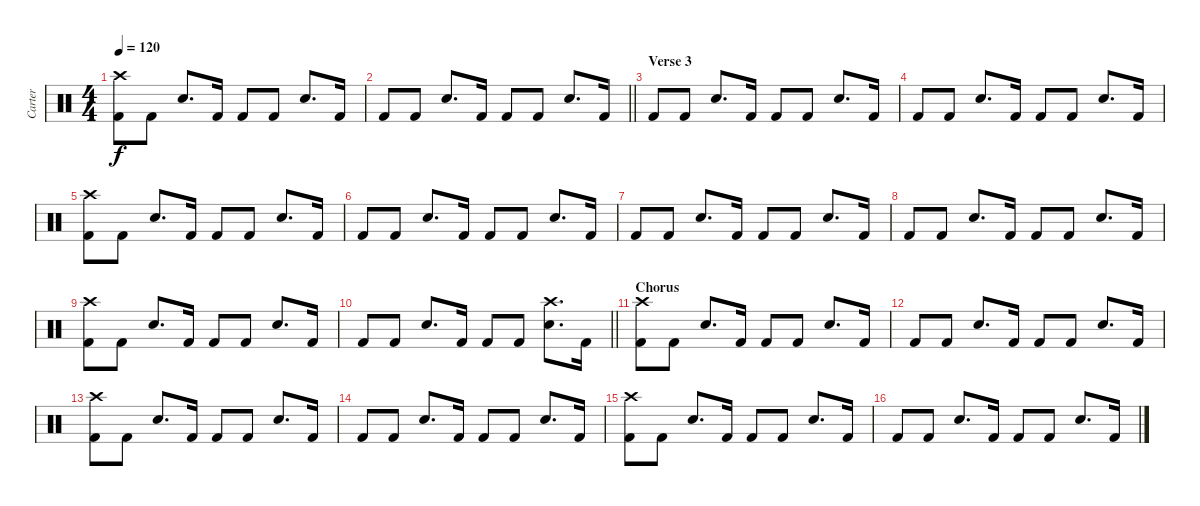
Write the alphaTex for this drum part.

\track ("Carter" "Carter") {instrument percussion}
\staff {score}
\articulation defaults
\ts (4 4)
\tempo 120
\clef neutral
\ks c
("Kick (hit) 2" "Crash high (hit)").8{dy f} "Kick (hit) 2".8 "Electric Snare (hit)".8{d} "Kick (hit) 2".16 "Kick (hit) 2".8 "Kick (hit) 2".8 "Electric Snare (hit)".8{d} "Kick (hit) 2".16 |
\barLineRight lightlight "Kick (hit) 2".8 "Kick (hit) 2".8 "Electric Snare (hit)".8{d} "Kick (hit) 2".16 "Kick (hit) 2".8 "Kick (hit) 2".8 "Electric Snare (hit)".8{d} "Kick (hit) 2".16
|
\section ("" "Verse 3")
"Kick (hit) 2".8 "Kick (hit) 2".8 "Electric Snare (hit)".8{d} "Kick (hit) 2".16 "Kick (hit) 2".8 "Kick (hit) 2".8 "Electric Snare (hit)".8{d} "Kick (hit) 2".16 |
"Kick (hit) 2".8 "Kick (hit) 2".8 "Electric Snare (hit)".8{d} "Kick (hit) 2".16 "Kick (hit) 2".8 "Kick (hit) 2".8 "Electric Snare (hit)".8{d} "Kick (hit) 2".16 |
("Kick (hit) 2" "Crash high (hit)").8 "Kick (hit) 2".8 "Electric Snare (hit)".8{d} "Kick (hit) 2".16 "Kick (hit) 2".8 "Kick (hit) 2".8 "Electric Snare (hit)".8{d} "Kick (hit) 2".16 |
"Kick (hit) 2".8 "Kick (hit) 2".8 "Electric Snare (hit)".8{d} "Kick (hit) 2".16 "Kick (hit) 2".8 "Kick (hit) 2".8 "Electric Snare (hit)".8{d} "Kick (hit) 2".16 |
"Kick (hit) 2".8 "Kick (hit) 2".8 "Electric Snare (hit)".8{d} "Kick (hit) 2".16 "Kick (hit) 2".8 "Kick (hit) 2".8 "Electric Snare (hit)".8{d} "Kick (hit) 2".16 |
"Kick (hit) 2".8 "Kick (hit) 2".8 "Electric Snare (hit)".8{d} "Kick (hit) 2".16 "Kick (hit) 2".8 "Kick (hit) 2".8 "Electric Snare (hit)".8{d} "Kick (hit) 2".16 |
("Kick (hit) 2" "Crash high (hit)").8 "Kick (hit) 2".8 "Electric Snare (hit)".8{d} "Kick (hit) 2".16 "Kick (hit) 2".8 "Kick (hit) 2".8 "Electric Snare (hit)".8{d} "Kick (hit) 2".16 |
\barLineRight lightlight "Kick (hit) 2".8 "Kick (hit) 2".8 "Electric Snare (hit)".8{d} "Kick (hit) 2".16 "Kick (hit) 2".8 "Kick (hit) 2".8
("Electric Snare (hit)" "Crash high (hit)").8{d} "Kick (hit) 2".16 |
\section ("" "Chorus")
("Kick (hit) 2" "Crash high (hit)").8 "Kick (hit) 2".8 "Electric Snare (hit)".8{d} "Kick (hit) 2".16 "Kick (hit) 2".8 "Kick (hit) 2".8 "Electric Snare (hit)".8{d} "Kick (hit) 2".16 |
"Kick (hit) 2".8 "Kick (hit) 2".8 "Electric Snare (hit)".8{d} "Kick (hit) 2".16 "Kick (hit) 2".8 "Kick (hit) 2".8 "Electric Snare (hit)".8{d} "Kick (hit) 2".16 |
("Kick (hit) 2" "Crash high (hit)").8 "Kick (hit) 2".8 "Electric Snare (hit)".8{d} "Kick (hit) 2".16 "Kick (hit) 2".8 "Kick (hit) 2".8 "Electric Snare (hit)".8{d} "Kick (hit) 2".16 |
"Kick (hit) 2".8 "Kick (hit) 2".8 "Electric Snare (hit)".8{d} "Kick (hit) 2".16 "Kick (hit) 2".8 "Kick (hit) 2".8 "Electric Snare (hit)".8{d} "Kick (hit) 2".16 |
("Kick (hit) 2" "Crash high (hit)").8 "Kick (hit) 2".8 "Electric Snare (hit)".8{d} "Kick (hit) 2".16 "Kick (hit) 2".8 "Kick (hit) 2".8 "Electric Snare (hit)".8{d} "Kick (hit) 2".16 |
"Kick (hit) 2".8 "Kick (hit) 2".8 "Electric Snare (hit)".8{d} "Kick (hit) 2".16 "Kick (hit) 2".8 "Kick (hit) 2".8 "Electric Snare (hit)".8{d} "Kick (hit) 2".16
